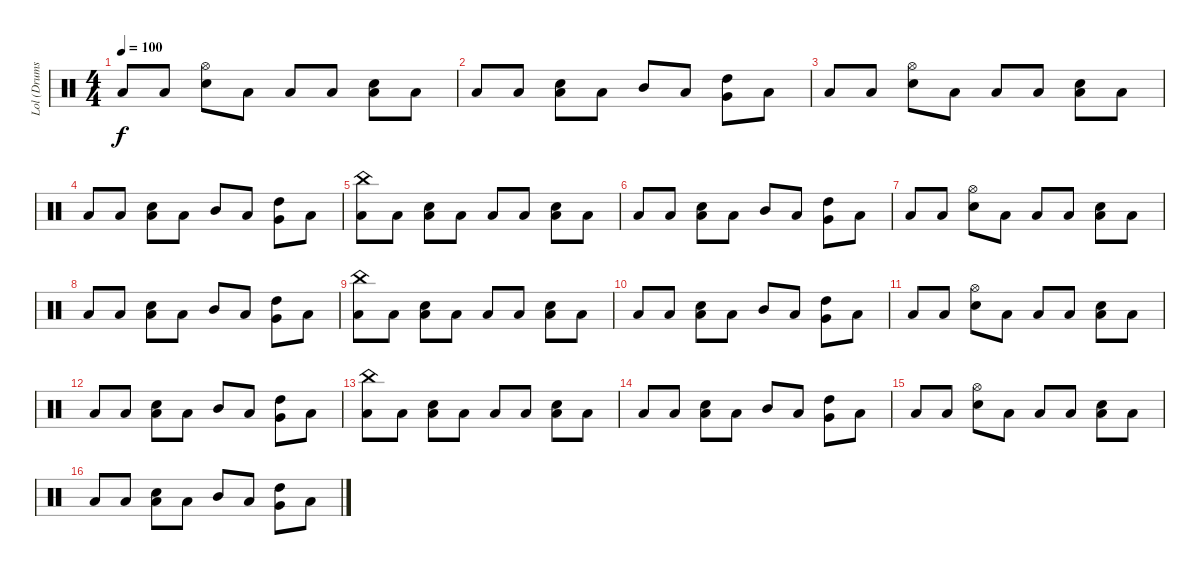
\track ("Lol (Drums)" "Lol (Drums") {instrument percussion}
\staff {score}
\articulation defaults
\ts (4 4)
\tempo 100
\clef neutral
\ks c "Low Tom (hit)".8{dy f} "Low Tom (hit)".8
("Hi-Hat (open)" "Snare (hit) 2").8 "Low Tom (hit)".8 "Low Tom (hit)".8 "Low Tom (hit)".8 ("Low Tom (hit)" "Snare (hit) 2").8 "Low Tom (hit)".8 |
"Low Tom (hit)".8 "Low Tom (hit)".8 ("Low Tom (hit)" "Snare (hit) 2").8 "Low Tom (hit)".8 "Mid Tom (hit)".8 "Low Tom (hit)".8 ("High Tom (hit)" "Very Low Tom (hit)").8 "Low Floor Tom (hit)".8 |
"Low Tom (hit)".8 "Low Tom (hit)".8 ("Hi-Hat (open)" "Snare (hit) 2").8 "Low Tom (hit)".8 "Low Tom (hit)".8 "Low Tom (hit)".8 ("Low Tom (hit)" "Snare (hit) 2").8 "Low Tom (hit)".8 |
"Low Tom (hit)".8 "Low Tom (hit)".8 ("Low Tom (hit)" "Snare (hit) 2").8 "Low Tom (hit)".8 "Mid Tom (hit)".8 "Low Tom (hit)".8 ("High Tom (hit)" "Very Low Tom (hit)").8 "Low Floor Tom (hit)".8 |
("China (hit)" "Low Tom (hit)").8 "Low Tom (hit)".8 ("Low Tom (hit)" "Snare (hit) 2").8 "Low Tom (hit)".8 "Low Tom (hit)".8 "Low Tom (hit)".8 ("Low Tom (hit)" "Snare (hit) 2").8 "Low Tom (hit)".8 |
"Low Tom (hit)".8 "Low Tom (hit)".8 ("Low Tom (hit)" "Snare (hit) 2").8 "Low Tom (hit)".8 "Mid Tom (hit)".8 "Low Tom (hit)".8 ("High Tom (hit)" "Very Low Tom (hit)").8 "Low Floor Tom (hit)".8 |
"Low Tom (hit)".8 "Low Tom (hit)".8 ("Hi-Hat (open)" "Snare (hit) 2").8 "Low Tom (hit)".8 "Low Tom (hit)".8 "Low Tom (hit)".8 ("Low Tom (hit)" "Snare (hit) 2").8 "Low Tom (hit)".8 |
"Low Tom (hit)".8 "Low Tom (hit)".8 ("Low Tom (hit)" "Snare (hit) 2").8 "Low Tom (hit)".8 "Mid Tom (hit)".8 "Low Tom (hit)".8 ("High Tom (hit)" "Very Low Tom (hit)").8 "Low Floor Tom (hit)".8 |
("China (hit)" "Low Tom (hit)").8 "Low Tom (hit)".8 ("Low Tom (hit)" "Snare (hit) 2").8 "Low Tom (hit)".8 "Low Tom (hit)".8 "Low Tom (hit)".8 ("Low Tom (hit)" "Snare (hit) 2").8 "Low Tom (hit)".8 |
"Low Tom (hit)".8 "Low Tom (hit)".8 ("Low Tom (hit)" "Snare (hit) 2").8 "Low Tom (hit)".8 "Mid Tom (hit)".8 "Low Tom (hit)".8 ("High Tom (hit)" "Very Low Tom (hit)").8 "Low Floor Tom (hit)".8 |
"Low Tom (hit)".8 "Low Tom (hit)".8 ("Hi-Hat (open)" "Snare (hit) 2").8 "Low Tom (hit)".8 "Low Tom (hit)".8 "Low Tom (hit)".8 ("Low Tom (hit)" "Snare (hit) 2").8 "Low Tom (hit)".8 |
"Low Tom (hit)".8 "Low Tom (hit)".8 ("Low Tom (hit)" "Snare (hit) 2").8 "Low Tom (hit)".8 "Mid Tom (hit)".8 "Low Tom (hit)".8 ("High Tom (hit)" "Very Low Tom (hit)").8 "Low Floor Tom (hit)".8 |
("China (hit)" "Low Tom (hit)").8 "Low Tom (hit)".8 ("Low Tom (hit)" "Snare (hit) 2").8 "Low Tom (hit)".8 "Low Tom (hit)".8 "Low Tom (hit)".8 ("Low Tom (hit)" "Snare (hit) 2").8 "Low Tom (hit)".8 |
"Low Tom (hit)".8 "Low Tom (hit)".8 ("Low Tom (hit)" "Snare (hit) 2").8 "Low Tom (hit)".8 "Mid Tom (hit)".8 "Low Tom (hit)".8 ("High Tom (hit)" "Very Low Tom (hit)").8 "Low Floor Tom (hit)".8 |
"Low Tom (hit)".8 "Low Tom (hit)".8 ("Hi-Hat (open)" "Snare (hit) 2").8 "Low Tom (hit)".8 "Low Tom (hit)".8 "Low Tom (hit)".8 ("Low Tom (hit)" "Snare (hit) 2").8 "Low Tom (hit)".8 |
"Low Tom (hit)".8 "Low Tom (hit)".8 ("Low Tom (hit)" "Snare (hit) 2").8 "Low Tom (hit)".8 "Mid Tom (hit)".8 "Low Tom (hit)".8 ("High Tom (hit)" "Very Low Tom (hit)").8 "Low Floor Tom (hit)".8
